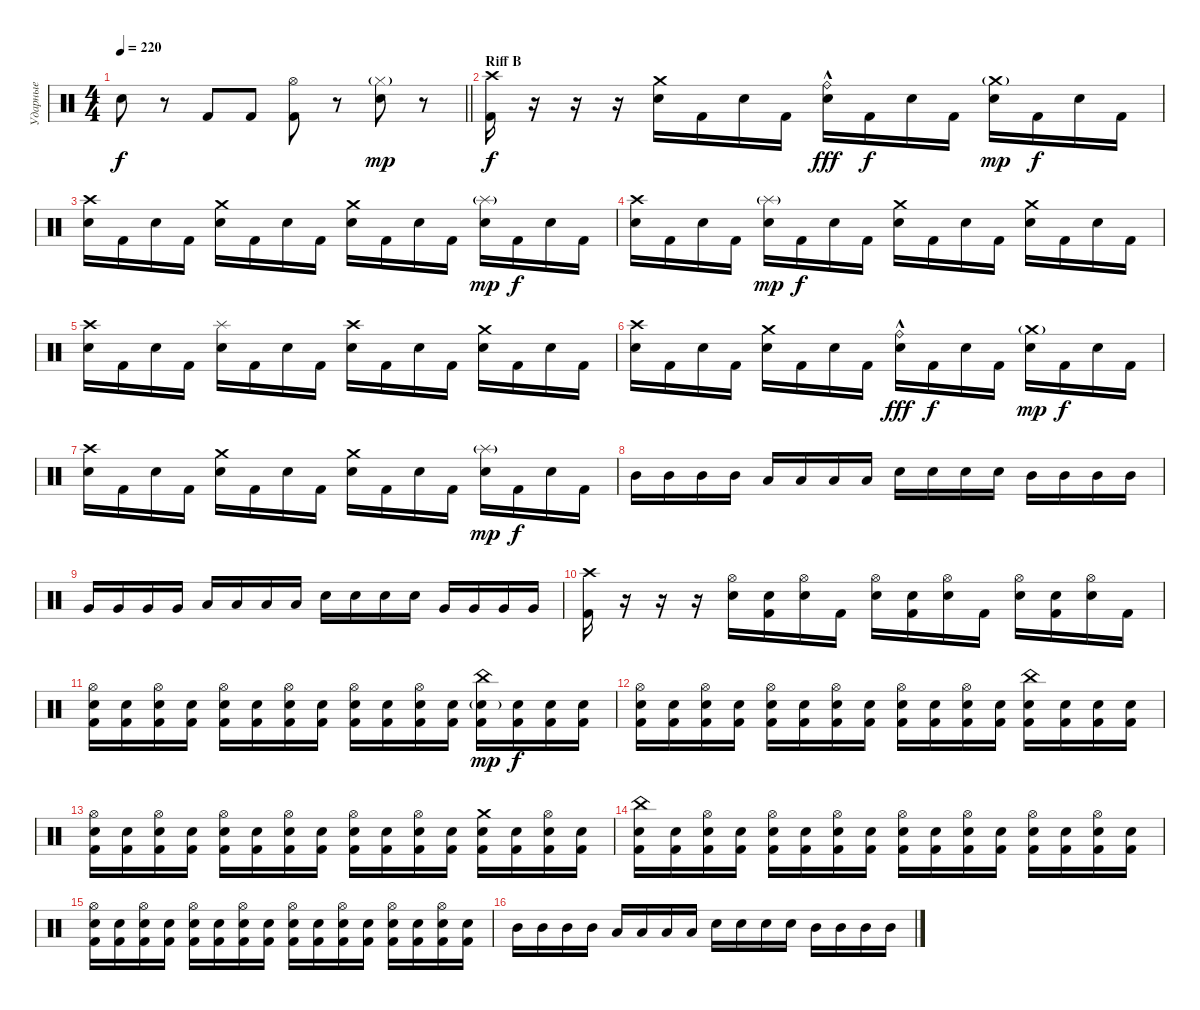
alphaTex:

\track ("Ударные" "Ударные") {instrument percussion}
\staff {score}
\articulation defaults
\ts (4 4)
\tempo 220
\clef neutral
\barLineRight lightlight
\ks c "Electric Snare (hit)".8{dy f}
r.8 "Kick (hit) 2".8 "Kick (hit) 2".8 ("Kick (hit) 2" "Hi-Hat (open)").8 r.8 ("Electric Snare (hit)" "Hi-Hat (closed)"{g}).8{dy mp} r.8 |
\section ("" "Riff B")
("Kick (hit) 2" "Crash high (hit)").16{dy f} r.16 r.16 r.16 ("Electric Snare (hit)" "Crash medium (hit)").16 "Kick (hit) 2".16 "Electric Snare (hit)".16 "Kick (hit) 2".16 ("Electric Snare (hit)" "Ride (bell)"{hac}).16{dy fff} "Kick (hit) 2".16{dy f} "Electric Snare (hit)".16 "Kick (hit) 2".16 ("Electric Snare (hit)" "Crash medium (hit)"{g}).16{dy mp} "Kick (hit) 2".16{dy f} "Electric Snare (hit)".16 "Kick (hit) 2".16 |
("Electric Snare (hit)" "Crash high (hit)").16 "Kick (hit) 2".16 "Electric Snare (hit)".16 "Kick (hit) 2".16 ("Electric Snare (hit)" "Crash medium (hit)").16 "Kick (hit) 2".16 "Electric Snare (hit)".16 "Kick (hit) 2".16 ("Electric Snare (hit)" "Crash medium (hit)").16 "Kick (hit) 2".16 "Electric Snare (hit)".16 "Kick (hit) 2".16 ("Electric Snare (hit)" "Splash (hit)"{g}).16{dy mp} "Kick (hit) 2".16{dy f} "Electric Snare (hit)".16 "Kick (hit) 2".16 |
("Electric Snare (hit)" "Crash high (hit)").16 "Kick (hit) 2".16 "Electric Snare (hit)".16 "Kick (hit) 2".16 ("Electric Snare (hit)" "Splash (hit)"{g}).16{dy mp} "Kick (hit) 2".16{dy f} "Electric Snare (hit)".16 "Kick (hit) 2".16 ("Electric Snare (hit)" "Crash medium (hit)").16 "Kick (hit) 2".16 "Electric Snare (hit)".16 "Kick (hit) 2".16 ("Electric Snare (hit)" "Crash medium (hit)").16 "Kick (hit) 2".16 "Electric Snare (hit)".16 "Kick (hit) 2".16 |
("Electric Snare (hit)" "Crash high (hit)").16 "Kick (hit) 2".16 "Electric Snare (hit)".16 "Kick (hit) 2".16 ("Electric Snare (hit)" "Splash (hit)").16 "Kick (hit) 2".16 "Electric Snare (hit)".16 "Kick (hit) 2".16 ("Electric Snare (hit)" "Crash high (hit)").16 "Kick (hit) 2".16 "Electric Snare (hit)".16 "Kick (hit) 2".16 ("Electric Snare (hit)" "Crash medium (hit)").16 "Kick (hit) 2".16 "Electric Snare (hit)".16 "Kick (hit) 2".16 |
("Electric Snare (hit)" "Crash high (hit)").16 "Kick (hit) 2".16 "Electric Snare (hit)".16 "Kick (hit) 2".16 ("Electric Snare (hit)" "Crash medium (hit)").16 "Kick (hit) 2".16 "Electric Snare (hit)".16 "Kick (hit) 2".16 ("Electric Snare (hit)" "Ride (bell)"{hac}).16{dy fff} "Kick (hit) 2".16{dy f} "Electric Snare (hit)".16 "Kick (hit) 2".16 ("Electric Snare (hit)" "Crash medium (hit)"{g}).16{dy mp} "Kick (hit) 2".16{dy f} "Electric Snare (hit)".16 "Kick (hit) 2".16 |
("Electric Snare (hit)" "Crash high (hit)").16 "Kick (hit) 2".16 "Electric Snare (hit)".16 "Kick (hit) 2".16 ("Electric Snare (hit)" "Crash medium (hit)").16 "Kick (hit) 2".16 "Electric Snare (hit)".16 "Kick (hit) 2".16 ("Electric Snare (hit)" "Crash medium (hit)").16 "Kick (hit) 2".16 "Electric Snare (hit)".16 "Kick (hit) 2".16 ("Electric Snare (hit)" "Splash (hit)"{g}).16{dy mp} "Kick (hit) 2".16{dy f} "Electric Snare (hit)".16 "Kick (hit) 2".16 |
"Mid Tom (hit)".16 "Mid Tom (hit)".16 "Mid Tom (hit)".16 "Mid Tom (hit)".16 "Low Tom (hit)".16 "Low Tom (hit)".16 "Low Tom (hit)".16 "Low Tom (hit)".16 "Electric Snare (hit)".16 "Electric Snare (hit)".16 "Electric Snare (hit)".16 "Electric Snare (hit)".16 "Mid Tom (hit)".16 "Mid Tom (hit)".16 "Mid Tom (hit)".16 "Mid Tom (hit)".16 |
"Very Low Tom (hit)".16 "Very Low Tom (hit)".16 "Very Low Tom (hit)".16 "Very Low Tom (hit)".16 "Low Tom (hit)".16 "Low Tom (hit)".16 "Low Tom (hit)".16 "Low Tom (hit)".16 "Electric Snare (hit)".16 "Electric Snare (hit)".16 "Electric Snare (hit)".16 "Electric Snare (hit)".16 "Very Low Tom (hit)".16 "Very Low Tom (hit)".16 "Very Low Tom (hit)".16 "Very Low Tom (hit)".16 |
("Kick (hit) 2" "Crash high (hit)").16 r.16 r.16 r.16 ("Electric Snare (hit)" "Hi-Hat (open)").16 ("Electric Snare (hit)" "Kick (hit) 2").16 ("Electric Snare (hit)" "Hi-Hat (open)").16 "Kick (hit) 2".16 ("Electric Snare (hit)" "Hi-Hat (open)").16 ("Electric Snare (hit)" "Kick (hit) 2").16 ("Electric Snare (hit)" "Hi-Hat (open)").16 "Kick (hit) 2".16 ("Electric Snare (hit)" "Hi-Hat (open)").16 ("Electric Snare (hit)" "Kick (hit) 2").16 ("Electric Snare (hit)" "Hi-Hat (open)").16 "Kick (hit) 2".16 |
("Electric Snare (hit)" "Kick (hit) 2" "Hi-Hat (open)").16 ("Electric Snare (hit)" "Kick (hit) 2").16 ("Electric Snare (hit)" "Kick (hit) 2" "Hi-Hat (open)").16 ("Electric Snare (hit)" "Kick (hit) 2").16 ("Electric Snare (hit)" "Kick (hit) 2" "Hi-Hat (open)").16 ("Electric Snare (hit)" "Kick (hit) 2").16 ("Electric Snare (hit)" "Kick (hit) 2" "Hi-Hat (open)").16 ("Electric Snare (hit)" "Kick (hit) 2").16 ("Electric Snare (hit)" "Kick (hit) 2" "Hi-Hat (open)").16 ("Electric Snare (hit)" "Kick (hit) 2").16 ("Electric Snare (hit)" "Kick (hit) 2" "Hi-Hat (open)").16 ("Electric Snare (hit)" "Kick (hit) 2").16 ("Electric Snare (hit)"{g} "Kick (hit) 2" "China (hit)").16{dy mp} ("Electric Snare (hit)" "Kick (hit) 2").16{dy f} ("Electric Snare (hit)" "Kick (hit) 2").16 ("Electric Snare (hit)" "Kick (hit) 2").16 |
("Electric Snare (hit)" "Kick (hit) 2" "Hi-Hat (open)").16 ("Electric Snare (hit)" "Kick (hit) 2").16 ("Electric Snare (hit)" "Kick (hit) 2" "Hi-Hat (open)").16 ("Electric Snare (hit)" "Kick (hit) 2").16 ("Electric Snare (hit)" "Kick (hit) 2" "Hi-Hat (open)").16 ("Electric Snare (hit)" "Kick (hit) 2").16 ("Electric Snare (hit)" "Kick (hit) 2" "Hi-Hat (open)").16 ("Electric Snare (hit)" "Kick (hit) 2").16 ("Electric Snare (hit)" "Kick (hit) 2" "Hi-Hat (open)").16 ("Electric Snare (hit)" "Kick (hit) 2").16 ("Electric Snare (hit)" "Kick (hit) 2" "Hi-Hat (open)").16 ("Electric Snare (hit)" "Kick (hit) 2").16 ("Electric Snare (hit)" "Kick (hit) 2" "China (hit)").16 ("Electric Snare (hit)" "Kick (hit) 2").16 ("Electric Snare (hit)" "Kick (hit) 2").16 ("Electric Snare (hit)" "Kick (hit) 2").16 |
("Electric Snare (hit)" "Kick (hit) 2" "Hi-Hat (open)").16 ("Electric Snare (hit)" "Kick (hit) 2").16 ("Electric Snare (hit)" "Kick (hit) 2" "Hi-Hat (open)").16 ("Electric Snare (hit)" "Kick (hit) 2").16 ("Electric Snare (hit)" "Kick (hit) 2" "Hi-Hat (open)").16 ("Electric Snare (hit)" "Kick (hit) 2").16 ("Electric Snare (hit)" "Kick (hit) 2" "Hi-Hat (open)").16 ("Electric Snare (hit)" "Kick (hit) 2").16 ("Electric Snare (hit)" "Kick (hit) 2" "Hi-Hat (open)").16 ("Electric Snare (hit)" "Kick (hit) 2").16 ("Electric Snare (hit)" "Kick (hit) 2" "Hi-Hat (open)").16 ("Electric Snare (hit)" "Kick (hit) 2").16 ("Electric Snare (hit)" "Kick (hit) 2" "Crash medium (hit)").16 ("Electric Snare (hit)" "Kick (hit) 2").16 ("Electric Snare (hit)" "Kick (hit) 2" "Hi-Hat (open)").16 ("Electric Snare (hit)" "Kick (hit) 2").16 |
("Electric Snare (hit)" "Kick (hit) 2" "China (hit)").16 ("Electric Snare (hit)" "Kick (hit) 2").16 ("Electric Snare (hit)" "Kick (hit) 2" "Hi-Hat (open)").16 ("Electric Snare (hit)" "Kick (hit) 2").16 ("Electric Snare (hit)" "Kick (hit) 2" "Hi-Hat (open)").16 ("Electric Snare (hit)" "Kick (hit) 2").16 ("Electric Snare (hit)" "Kick (hit) 2" "Hi-Hat (open)").16 ("Electric Snare (hit)" "Kick (hit) 2").16 ("Electric Snare (hit)" "Kick (hit) 2" "Hi-Hat (open)").16 ("Electric Snare (hit)" "Kick (hit) 2").16 ("Electric Snare (hit)" "Kick (hit) 2" "Hi-Hat (open)").16 ("Electric Snare (hit)" "Kick (hit) 2").16 ("Electric Snare (hit)" "Kick (hit) 2" "Hi-Hat (open)").16 ("Electric Snare (hit)" "Kick (hit) 2").16 ("Electric Snare (hit)" "Kick (hit) 2" "Hi-Hat (open)").16 ("Electric Snare (hit)" "Kick (hit) 2").16 |
("Electric Snare (hit)" "Kick (hit) 2" "Hi-Hat (open)").16 ("Electric Snare (hit)" "Kick (hit) 2").16 ("Electric Snare (hit)" "Kick (hit) 2" "Hi-Hat (open)").16 ("Electric Snare (hit)" "Kick (hit) 2").16 ("Electric Snare (hit)" "Kick (hit) 2" "Hi-Hat (open)").16 ("Electric Snare (hit)" "Kick (hit) 2").16 ("Electric Snare (hit)" "Kick (hit) 2" "Hi-Hat (open)").16 ("Electric Snare (hit)" "Kick (hit) 2").16 ("Electric Snare (hit)" "Kick (hit) 2" "Hi-Hat (open)").16 ("Electric Snare (hit)" "Kick (hit) 2").16 ("Electric Snare (hit)" "Kick (hit) 2" "Hi-Hat (open)").16 ("Electric Snare (hit)" "Kick (hit) 2").16 ("Electric Snare (hit)" "Kick (hit) 2" "Hi-Hat (open)").16 ("Electric Snare (hit)" "Kick (hit) 2").16 ("Electric Snare (hit)" "Kick (hit) 2" "Hi-Hat (open)").16 ("Electric Snare (hit)" "Kick (hit) 2").16 |
"Mid Tom (hit)".16 "Mid Tom (hit)".16 "Mid Tom (hit)".16 "Mid Tom (hit)".16 "Low Tom (hit)".16 "Low Tom (hit)".16 "Low Tom (hit)".16 "Low Tom (hit)".16 "Electric Snare (hit)".16 "Electric Snare (hit)".16 "Electric Snare (hit)".16 "Electric Snare (hit)".16 "Mid Tom (hit)".16 "Mid Tom (hit)".16 "Mid Tom (hit)".16 "Mid Tom (hit)".16
